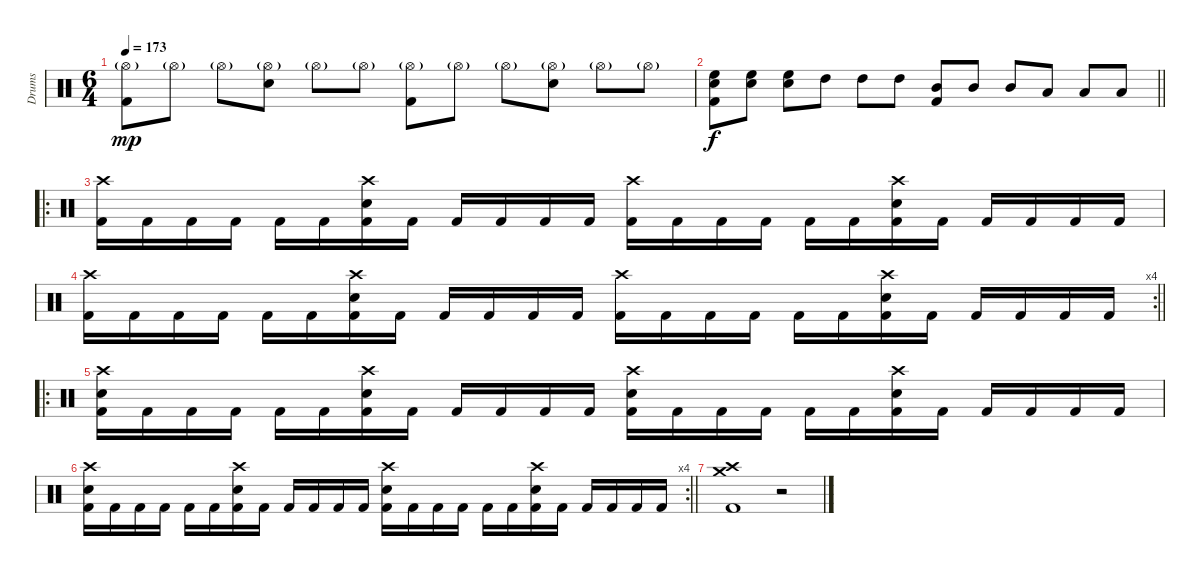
\track ("Drums" "Drums") {instrument percussion}
\staff {score}
\articulation defaults
\ts (6 4)
\tempo 173
\clef neutral
\ks c
("Kick (hit) 2" "Hi-Hat (open)"{g}).8{dy mp} "Hi-Hat (open)"{g}.8 "Hi-Hat (open)"{g}.8 ("Snare (hit) 2" "Hi-Hat (open)"{g}).8 "Hi-Hat (open)"{g}.8 "Hi-Hat (open)"{g}.8 ("Kick (hit) 2" "Hi-Hat (open)"{g}).8 "Hi-Hat (open)"{g}.8 "Hi-Hat (open)"{g}.8 ("Snare (hit) 2" "Hi-Hat (open)"{g}).8 "Hi-Hat (open)"{g}.8 "Hi-Hat (open)"{g}.8 |
\barLineRight lightlight
("Kick (hit) 2" "Snare (hit) 2" "High Floor Tom (hit)").8{dy f} ("Snare (hit) 2" "High Floor Tom (hit)").8 ("Snare (hit) 2" "High Floor Tom (hit)").8 "High Tom (hit)".8 "High Tom (hit)".8 "High Tom (hit)".8 ("Kick (hit) 2" "Mid Tom (hit)").8 "Mid Tom (hit)".8 "Mid Tom (hit)".8 "Low Tom (hit)".8 "Low Tom (hit)".8 "Low Tom (hit)".8 |
\ro
\section ("" "")
("Kick (hit) 2" "Crash high (hit)").16 "Kick (hit) 2".16 "Kick (hit) 2".16 "Kick (hit) 2".16 "Kick (hit) 2".16 "Kick (hit) 2".16 ("Kick (hit) 2" "Snare (hit) 2" "Crash high (hit)").16 "Kick (hit) 2".16 "Kick (hit) 2".16 "Kick (hit) 2".16 "Kick (hit) 2".16 "Kick (hit) 2".16 ("Kick (hit) 2" "Crash high (hit)").16 "Kick (hit) 2".16 "Kick (hit) 2".16 "Kick (hit) 2".16 "Kick (hit) 2".16 "Kick (hit) 2".16 ("Kick (hit) 2" "Snare (hit) 2" "Crash high (hit)").16 "Kick (hit) 2".16 "Kick (hit) 2".16 "Kick (hit) 2".16 "Kick (hit) 2".16 "Kick (hit) 2".16 |
\rc 4
\barLineRight lightlight
("Kick (hit) 2" "Crash high (hit)").16 "Kick (hit) 2".16 "Kick (hit) 2".16 "Kick (hit) 2".16 "Kick (hit) 2".16 "Kick (hit) 2".16 ("Kick (hit) 2" "Snare (hit) 2" "Crash high (hit)").16 "Kick (hit) 2".16 "Kick (hit) 2".16 "Kick (hit) 2".16 "Kick (hit) 2".16 "Kick (hit) 2".16 ("Kick (hit) 2" "Crash high (hit)").16 "Kick (hit) 2".16 "Kick (hit) 2".16 "Kick (hit) 2".16 "Kick (hit) 2".16 "Kick (hit) 2".16 ("Kick (hit) 2" "Snare (hit) 2" "Crash high (hit)").16 "Kick (hit) 2".16 "Kick (hit) 2".16 "Kick (hit) 2".16 "Kick (hit) 2".16 "Kick (hit) 2".16 |
\ro
\section ("" "")
("Kick (hit) 2" "Snare (hit) 2" "Crash high (hit)").16 "Kick (hit) 2".16 "Kick (hit) 2".16 "Kick (hit) 2".16 "Kick (hit) 2".16 "Kick (hit) 2".16 ("Kick (hit) 2" "Snare (hit) 2" "Crash high (hit)").16 "Kick (hit) 2".16 "Kick (hit) 2".16 "Kick (hit) 2".16 "Kick (hit) 2".16 "Kick (hit) 2".16 ("Kick (hit) 2" "Snare (hit) 2" "Crash high (hit)").16 "Kick (hit) 2".16 "Kick (hit) 2".16 "Kick (hit) 2".16 "Kick (hit) 2".16 "Kick (hit) 2".16 ("Kick (hit) 2" "Snare (hit) 2" "Crash high (hit)").16 "Kick (hit) 2".16 "Kick (hit) 2".16 "Kick (hit) 2".16 "Kick (hit) 2".16 "Kick (hit) 2".16 |
\rc 4
\barLineRight lightlight
("Kick (hit) 2" "Snare (hit) 2" "Crash high (hit)").16 "Kick (hit) 2".16 "Kick (hit) 2".16 "Kick (hit) 2".16 "Kick (hit) 2".16 "Kick (hit) 2".16 ("Kick (hit) 2" "Snare (hit) 2" "Crash high (hit)").16 "Kick (hit) 2".16 "Kick (hit) 2".16 "Kick (hit) 2".16 "Kick (hit) 2".16 "Kick (hit) 2".16 ("Kick (hit) 2" "Snare (hit) 2" "Crash high (hit)").16 "Kick (hit) 2".16 "Kick (hit) 2".16 "Kick (hit) 2".16 "Kick (hit) 2".16 "Kick (hit) 2".16 ("Kick (hit) 2" "Snare (hit) 2" "Crash high (hit)").16 "Kick (hit) 2".16 "Kick (hit) 2".16 "Kick (hit) 2".16 "Kick (hit) 2".16 "Kick (hit) 2".16 |
\section ("" "")
("Kick (hit) 2" "Crash high (hit)" "Crash medium (hit)").1 r.2
